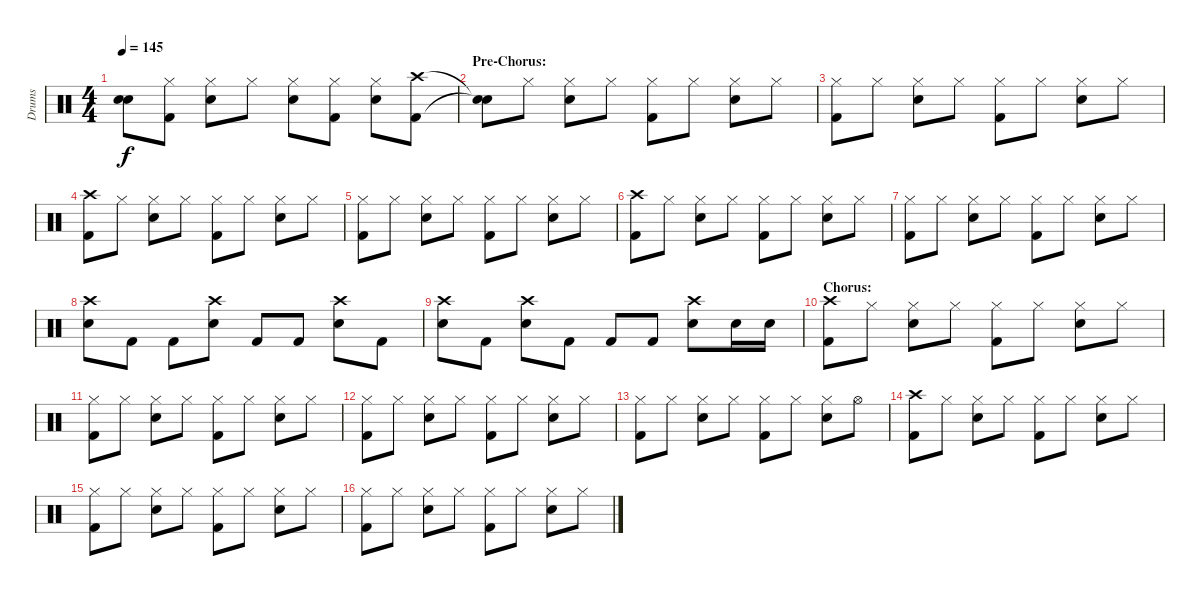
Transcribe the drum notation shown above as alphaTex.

\track ("Drums" "Drums") {instrument percussion}
\staff {score}
\articulation defaults
\ts (4 4)
\tempo 145
\clef neutral
\ks c
("Snare (hit)"{t} "Snare (hit)"{t}).8{dy f} ("Hi-Hat (closed)" "Kick (hit) 2").8 ("Hi-Hat (closed)" "Electric Snare (hit)").8 "Hi-Hat (closed)".8 ("Hi-Hat (closed)" "Electric Snare (hit)").8 ("Hi-Hat (closed)" "Kick (hit) 2").8 ("Hi-Hat (closed)" "Electric Snare (hit)").8 ("Crash high (hit)" "Kick (hit) 2").8 |
\section ("" "Pre-Chorus:")
("Snare (hit)"{t} "Snare (hit)"{t}).8 "Hi-Hat (closed)".8 ("Hi-Hat (closed)" "Electric Snare (hit)").8 "Hi-Hat (closed)".8 ("Hi-Hat (closed)" "Kick (hit) 2").8 "Hi-Hat (closed)".8 ("Hi-Hat (closed)" "Electric Snare (hit)").8 "Hi-Hat (closed)".8 |
("Hi-Hat (closed)" "Kick (hit) 2").8 "Hi-Hat (closed)".8 ("Hi-Hat (closed)" "Electric Snare (hit)").8 "Hi-Hat (closed)".8 ("Hi-Hat (closed)" "Kick (hit) 2").8 "Hi-Hat (closed)".8 ("Hi-Hat (closed)" "Electric Snare (hit)").8 "Hi-Hat (closed)".8 |
("Crash high (hit)" "Kick (hit) 2").8 "Hi-Hat (closed)".8 ("Hi-Hat (closed)" "Electric Snare (hit)").8 "Hi-Hat (closed)".8 ("Hi-Hat (closed)" "Kick (hit) 2").8 "Hi-Hat (closed)".8 ("Hi-Hat (closed)" "Electric Snare (hit)").8 "Hi-Hat (closed)".8 |
("Hi-Hat (closed)" "Kick (hit) 2").8 "Hi-Hat (closed)".8 ("Hi-Hat (closed)" "Electric Snare (hit)").8 "Hi-Hat (closed)".8 ("Hi-Hat (closed)" "Kick (hit) 2").8 "Hi-Hat (closed)".8 ("Hi-Hat (closed)" "Electric Snare (hit)").8 "Hi-Hat (closed)".8 |
("Crash high (hit)" "Kick (hit) 2").8 "Hi-Hat (closed)".8 ("Hi-Hat (closed)" "Electric Snare (hit)").8 "Hi-Hat (closed)".8 ("Hi-Hat (closed)" "Kick (hit) 2").8 "Hi-Hat (closed)".8 ("Hi-Hat (closed)" "Electric Snare (hit)").8 "Hi-Hat (closed)".8 |
("Hi-Hat (closed)" "Kick (hit) 2").8 "Hi-Hat (closed)".8 ("Hi-Hat (closed)" "Electric Snare (hit)").8 "Hi-Hat (closed)".8 ("Hi-Hat (closed)" "Kick (hit) 2").8 "Hi-Hat (closed)".8 ("Hi-Hat (closed)" "Electric Snare (hit)").8 "Hi-Hat (closed)".8 |
("Crash high (hit)" "Electric Snare (hit)").8 "Kick (hit) 2".8 "Kick (hit) 2".8 ("Crash high (hit)" "Electric Snare (hit)").8 "Kick (hit) 2".8 "Kick (hit) 2".8 ("Crash high (hit)" "Electric Snare (hit)").8 "Kick (hit) 2".8 |
("Crash high (hit)" "Electric Snare (hit)").8 "Kick (hit) 2".8 ("Crash high (hit)" "Electric Snare (hit)").8 "Kick (hit) 2".8 "Kick (hit) 2".8 "Kick (hit) 2".8 ("Crash high (hit)" "Electric Snare (hit)").8 "Electric Snare (hit)".16 "Electric Snare (hit)".16 |
\section ("" "Chorus:")
("Crash high (hit)" "Kick (hit) 2").8 "Hi-Hat (closed)".8 ("Hi-Hat (closed)" "Electric Snare (hit)").8 "Hi-Hat (closed)".8 ("Hi-Hat (closed)" "Kick (hit) 2").8 "Hi-Hat (closed)".8 ("Hi-Hat (closed)" "Electric Snare (hit)").8 "Hi-Hat (closed)".8 |
("Hi-Hat (closed)" "Kick (hit) 2").8 "Hi-Hat (closed)".8 ("Hi-Hat (closed)" "Electric Snare (hit)").8 "Hi-Hat (closed)".8 ("Hi-Hat (closed)" "Kick (hit) 2").8 "Hi-Hat (closed)".8 ("Hi-Hat (closed)" "Electric Snare (hit)").8 "Hi-Hat (closed)".8 |
("Hi-Hat (closed)" "Kick (hit) 2").8 "Hi-Hat (closed)".8 ("Hi-Hat (closed)" "Electric Snare (hit)").8 "Hi-Hat (closed)".8 ("Hi-Hat (closed)" "Kick (hit) 2").8 "Hi-Hat (closed)".8 ("Hi-Hat (closed)" "Electric Snare (hit)").8 "Hi-Hat (closed)".8 |
("Hi-Hat (closed)" "Kick (hit) 2").8 "Hi-Hat (closed)".8 ("Hi-Hat (closed)" "Electric Snare (hit)").8 "Hi-Hat (closed)".8 ("Hi-Hat (closed)" "Kick (hit) 2").8 "Hi-Hat (closed)".8 ("Hi-Hat (closed)" "Electric Snare (hit)").8 "Hi-Hat (open)".8 |
("Crash high (hit)" "Kick (hit) 2").8 "Hi-Hat (closed)".8 ("Hi-Hat (closed)" "Electric Snare (hit)").8 "Hi-Hat (closed)".8 ("Hi-Hat (closed)" "Kick (hit) 2").8 "Hi-Hat (closed)".8 ("Hi-Hat (closed)" "Electric Snare (hit)").8 "Hi-Hat (closed)".8 |
("Hi-Hat (closed)" "Kick (hit) 2").8 "Hi-Hat (closed)".8 ("Hi-Hat (closed)" "Electric Snare (hit)").8 "Hi-Hat (closed)".8 ("Hi-Hat (closed)" "Kick (hit) 2").8 "Hi-Hat (closed)".8 ("Hi-Hat (closed)" "Electric Snare (hit)").8 "Hi-Hat (closed)".8 |
("Hi-Hat (closed)" "Kick (hit) 2").8 "Hi-Hat (closed)".8 ("Hi-Hat (closed)" "Electric Snare (hit)").8 "Hi-Hat (closed)".8 ("Hi-Hat (closed)" "Kick (hit) 2").8 "Hi-Hat (closed)".8 ("Hi-Hat (closed)" "Electric Snare (hit)").8 "Hi-Hat (closed)".8
